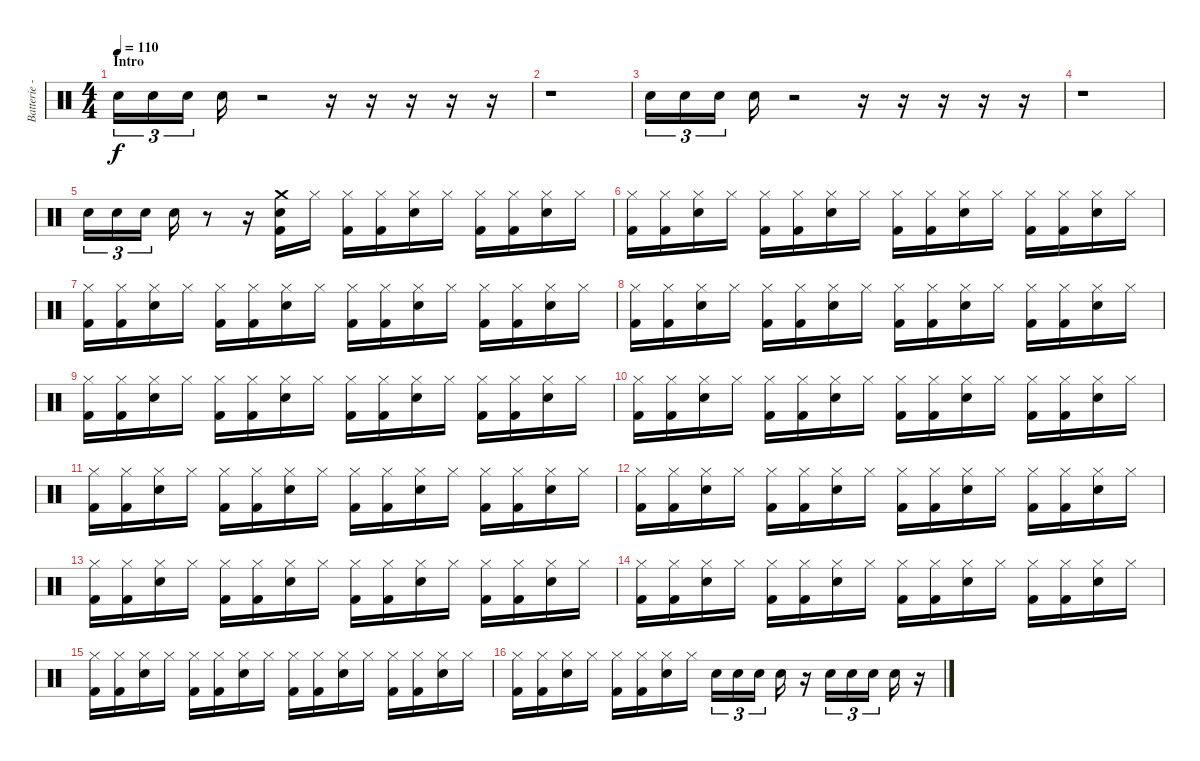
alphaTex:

\track ("Batterie - Travis Barker" "Batterie -") {instrument percussion}
\staff {score}
\articulation defaults
\ts (4 4)
\section ("" "Intro")
\tempo 110
\clef neutral
\ks c "Snare (hit) 2".16{tu (3 2) dy f} "Snare (hit) 2".16{tu (3 2)} "Snare (hit) 2".16{tu (3 2)} "Snare (hit) 2".16
r.2 r.16 r.16 r.16 r.16 r.16 |
r.1 |
"Snare (hit) 2".16{tu (3 2)} "Snare (hit) 2".16{tu (3 2)} "Snare (hit) 2".16{tu (3 2)} "Snare (hit) 2".16 r.2 r.16 r.16 r.16 r.16 r.16 |
r.1 |
"Snare (hit) 2".16{tu (3 2)} "Snare (hit) 2".16{tu (3 2)} "Snare (hit) 2".16{tu (3 2)} "Snare (hit) 2".16 r.8 r.16 ("Snare (hit) 2" "Crash medium (hit)" "Kick (hit) 2").16 "Hi-Hat (closed)".16 ("Hi-Hat (closed)" "Kick (hit) 2").16 ("Hi-Hat (closed)" "Kick (hit) 2").16 ("Hi-Hat (closed)" "Snare (hit) 2").16 "Hi-Hat (closed)".16 ("Hi-Hat (closed)" "Kick (hit) 2").16 ("Hi-Hat (closed)" "Kick (hit) 2").16 ("Hi-Hat (closed)" "Snare (hit) 2").16 "Hi-Hat (closed)".16 |
("Hi-Hat (closed)" "Kick (hit) 2").16 ("Hi-Hat (closed)" "Kick (hit) 2").16 ("Hi-Hat (closed)" "Snare (hit) 2").16 "Hi-Hat (closed)".16 ("Hi-Hat (closed)" "Kick (hit) 2").16 ("Hi-Hat (closed)" "Kick (hit) 2").16 ("Hi-Hat (closed)" "Snare (hit) 2").16 "Hi-Hat (closed)".16 ("Hi-Hat (closed)" "Kick (hit) 2").16 ("Hi-Hat (closed)" "Kick (hit) 2").16 ("Hi-Hat (closed)" "Snare (hit) 2").16 "Hi-Hat (closed)".16 ("Hi-Hat (closed)" "Kick (hit) 2").16 ("Hi-Hat (closed)" "Kick (hit) 2").16 ("Hi-Hat (closed)" "Snare (hit) 2").16 "Hi-Hat (closed)".16 |
("Hi-Hat (closed)" "Kick (hit) 2").16 ("Hi-Hat (closed)" "Kick (hit) 2").16 ("Hi-Hat (closed)" "Snare (hit) 2").16 "Hi-Hat (closed)".16 ("Hi-Hat (closed)" "Kick (hit) 2").16 ("Hi-Hat (closed)" "Kick (hit) 2").16 ("Hi-Hat (closed)" "Snare (hit) 2").16 "Hi-Hat (closed)".16 ("Hi-Hat (closed)" "Kick (hit) 2").16 ("Hi-Hat (closed)" "Kick (hit) 2").16 ("Hi-Hat (closed)" "Snare (hit) 2").16 "Hi-Hat (closed)".16 ("Hi-Hat (closed)" "Kick (hit) 2").16 ("Hi-Hat (closed)" "Kick (hit) 2").16 ("Hi-Hat (closed)" "Snare (hit) 2").16 "Hi-Hat (closed)".16 |
("Hi-Hat (closed)" "Kick (hit) 2").16 ("Hi-Hat (closed)" "Kick (hit) 2").16 ("Hi-Hat (closed)" "Snare (hit) 2").16 "Hi-Hat (closed)".16 ("Hi-Hat (closed)" "Kick (hit) 2").16 ("Hi-Hat (closed)" "Kick (hit) 2").16 ("Hi-Hat (closed)" "Snare (hit) 2").16 "Hi-Hat (closed)".16 ("Hi-Hat (closed)" "Kick (hit) 2").16 ("Hi-Hat (closed)" "Kick (hit) 2").16 ("Hi-Hat (closed)" "Snare (hit) 2").16 "Hi-Hat (closed)".16 ("Hi-Hat (closed)" "Kick (hit) 2").16 ("Hi-Hat (closed)" "Kick (hit) 2").16 ("Hi-Hat (closed)" "Snare (hit) 2").16 "Hi-Hat (closed)".16 |
("Hi-Hat (closed)" "Kick (hit) 2").16 ("Hi-Hat (closed)" "Kick (hit) 2").16 ("Hi-Hat (closed)" "Snare (hit) 2").16 "Hi-Hat (closed)".16 ("Hi-Hat (closed)" "Kick (hit) 2").16 ("Hi-Hat (closed)" "Kick (hit) 2").16 ("Hi-Hat (closed)" "Snare (hit) 2").16 "Hi-Hat (closed)".16 ("Hi-Hat (closed)" "Kick (hit) 2").16 ("Hi-Hat (closed)" "Kick (hit) 2").16 ("Hi-Hat (closed)" "Snare (hit) 2").16 "Hi-Hat (closed)".16 ("Hi-Hat (closed)" "Kick (hit) 2").16 ("Hi-Hat (closed)" "Kick (hit) 2").16 ("Hi-Hat (closed)" "Snare (hit) 2").16 "Hi-Hat (closed)".16 |
("Hi-Hat (closed)" "Kick (hit) 2").16 ("Hi-Hat (closed)" "Kick (hit) 2").16 ("Hi-Hat (closed)" "Snare (hit) 2").16 "Hi-Hat (closed)".16 ("Hi-Hat (closed)" "Kick (hit) 2").16 ("Hi-Hat (closed)" "Kick (hit) 2").16 ("Hi-Hat (closed)" "Snare (hit) 2").16 "Hi-Hat (closed)".16 ("Hi-Hat (closed)" "Kick (hit) 2").16 ("Hi-Hat (closed)" "Kick (hit) 2").16 ("Hi-Hat (closed)" "Snare (hit) 2").16 "Hi-Hat (closed)".16 ("Hi-Hat (closed)" "Kick (hit) 2").16 ("Hi-Hat (closed)" "Kick (hit) 2").16 ("Hi-Hat (closed)" "Snare (hit) 2").16 "Hi-Hat (closed)".16 |
("Hi-Hat (closed)" "Kick (hit) 2").16 ("Hi-Hat (closed)" "Kick (hit) 2").16 ("Hi-Hat (closed)" "Snare (hit) 2").16 "Hi-Hat (closed)".16 ("Hi-Hat (closed)" "Kick (hit) 2").16 ("Hi-Hat (closed)" "Kick (hit) 2").16 ("Hi-Hat (closed)" "Snare (hit) 2").16 "Hi-Hat (closed)".16 ("Hi-Hat (closed)" "Kick (hit) 2").16 ("Hi-Hat (closed)" "Kick (hit) 2").16 ("Hi-Hat (closed)" "Snare (hit) 2").16 "Hi-Hat (closed)".16 ("Hi-Hat (closed)" "Kick (hit) 2").16 ("Hi-Hat (closed)" "Kick (hit) 2").16 ("Hi-Hat (closed)" "Snare (hit) 2").16 "Hi-Hat (closed)".16 |
("Hi-Hat (closed)" "Kick (hit) 2").16 ("Hi-Hat (closed)" "Kick (hit) 2").16 ("Hi-Hat (closed)" "Snare (hit) 2").16 "Hi-Hat (closed)".16 ("Hi-Hat (closed)" "Kick (hit) 2").16 ("Hi-Hat (closed)" "Kick (hit) 2").16 ("Hi-Hat (closed)" "Snare (hit) 2").16 "Hi-Hat (closed)".16 ("Hi-Hat (closed)" "Kick (hit) 2").16 ("Hi-Hat (closed)" "Kick (hit) 2").16 ("Hi-Hat (closed)" "Snare (hit) 2").16 "Hi-Hat (closed)".16 ("Hi-Hat (closed)" "Kick (hit) 2").16 ("Hi-Hat (closed)" "Kick (hit) 2").16 ("Hi-Hat (closed)" "Snare (hit) 2").16 "Hi-Hat (closed)".16 |
("Hi-Hat (closed)" "Kick (hit) 2").16 ("Hi-Hat (closed)" "Kick (hit) 2").16 ("Hi-Hat (closed)" "Snare (hit) 2").16 "Hi-Hat (closed)".16 ("Hi-Hat (closed)" "Kick (hit) 2").16 ("Hi-Hat (closed)" "Kick (hit) 2").16 ("Hi-Hat (closed)" "Snare (hit) 2").16 "Hi-Hat (closed)".16 ("Hi-Hat (closed)" "Kick (hit) 2").16 ("Hi-Hat (closed)" "Kick (hit) 2").16 ("Hi-Hat (closed)" "Snare (hit) 2").16 "Hi-Hat (closed)".16 ("Hi-Hat (closed)" "Kick (hit) 2").16 ("Hi-Hat (closed)" "Kick (hit) 2").16 ("Hi-Hat (closed)" "Snare (hit) 2").16 "Hi-Hat (closed)".16 |
("Hi-Hat (closed)" "Kick (hit) 2").16 ("Hi-Hat (closed)" "Kick (hit) 2").16 ("Hi-Hat (closed)" "Snare (hit) 2").16 "Hi-Hat (closed)".16 ("Hi-Hat (closed)" "Kick (hit) 2").16 ("Hi-Hat (closed)" "Kick (hit) 2").16 ("Hi-Hat (closed)" "Snare (hit) 2").16 "Hi-Hat (closed)".16 ("Hi-Hat (closed)" "Kick (hit) 2").16 ("Hi-Hat (closed)" "Kick (hit) 2").16 ("Hi-Hat (closed)" "Snare (hit) 2").16 "Hi-Hat (closed)".16 ("Hi-Hat (closed)" "Kick (hit) 2").16 ("Hi-Hat (closed)" "Kick (hit) 2").16 ("Hi-Hat (closed)" "Snare (hit) 2").16 "Hi-Hat (closed)".16 |
("Hi-Hat (closed)" "Kick (hit) 2").16 ("Hi-Hat (closed)" "Kick (hit) 2").16 ("Hi-Hat (closed)" "Snare (hit) 2").16 "Hi-Hat (closed)".16 ("Hi-Hat (closed)" "Kick (hit) 2").16 ("Hi-Hat (closed)" "Kick (hit) 2").16 ("Hi-Hat (closed)" "Snare (hit) 2").16 "Hi-Hat (closed)".16 ("Hi-Hat (closed)" "Kick (hit) 2").16 ("Hi-Hat (closed)" "Kick (hit) 2").16 ("Hi-Hat (closed)" "Snare (hit) 2").16 "Hi-Hat (closed)".16 ("Hi-Hat (closed)" "Kick (hit) 2").16 ("Hi-Hat (closed)" "Kick (hit) 2").16 ("Hi-Hat (closed)" "Snare (hit) 2").16 "Hi-Hat (closed)".16 |
("Hi-Hat (closed)" "Kick (hit) 2").16 ("Hi-Hat (closed)" "Kick (hit) 2").16 ("Hi-Hat (closed)" "Snare (hit) 2").16 "Hi-Hat (closed)".16 ("Hi-Hat (closed)" "Kick (hit) 2").16 ("Hi-Hat (closed)" "Kick (hit) 2").16 ("Hi-Hat (closed)" "Snare (hit) 2").16 "Hi-Hat (closed)".16 "Snare (hit) 2".16{tu (3 2)} "Snare (hit) 2".16{tu (3 2)} "Snare (hit) 2".16{tu (3 2)} "Snare (hit) 2".16 r.16 "Snare (hit) 2".16{tu (3 2)} "Snare (hit) 2".16{tu (3 2)} "Snare (hit) 2".16{tu (3 2)} "Snare (hit) 2".16 r.16
